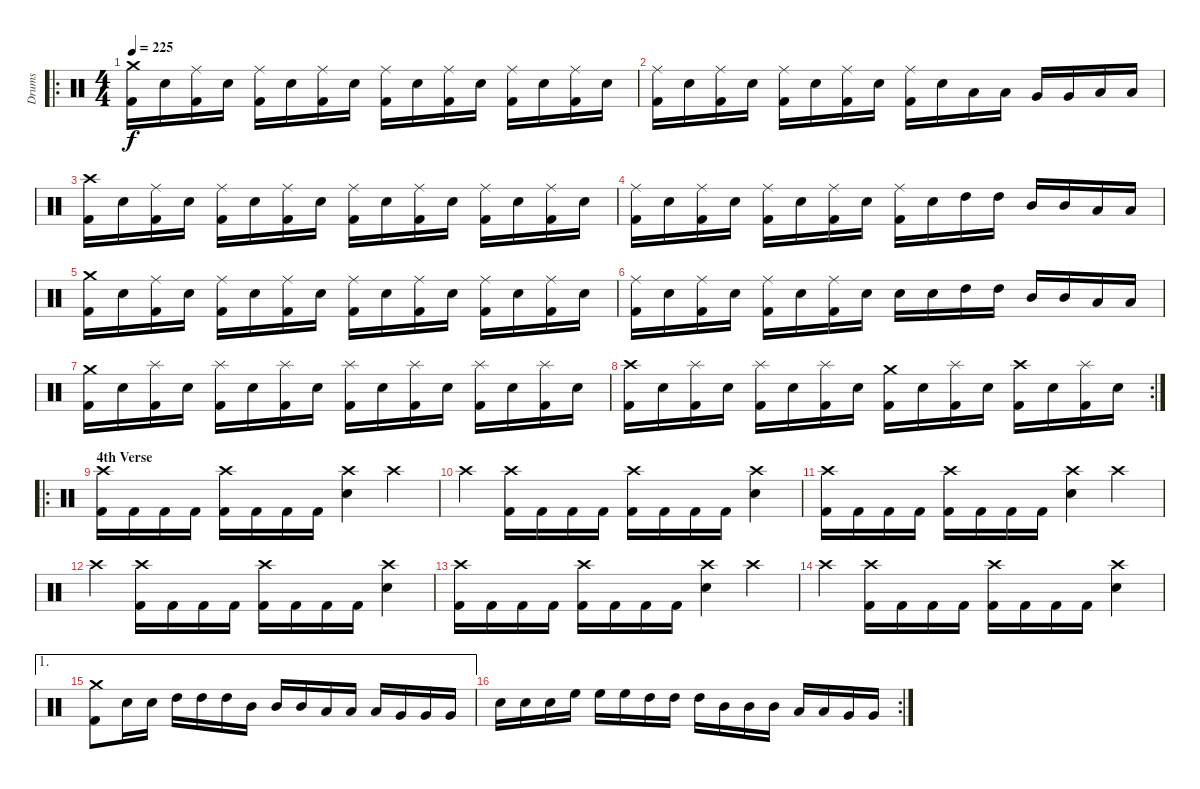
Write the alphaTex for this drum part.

\track ("Drums" "Drums") {instrument percussion}
\staff {score}
\articulation defaults
\ro
\ts (4 4)
\tempo 225
\clef neutral
\ks c
("Kick (hit) 2" "Crash medium (hit)").16{dy f} "Electric Snare (hit)".16 ("Kick (hit) 2" "Ride (middle)").16 "Electric Snare (hit)".16 ("Kick (hit) 2" "Ride (middle)").16 "Electric Snare (hit)".16 ("Kick (hit) 2" "Ride (middle)").16 "Electric Snare (hit)".16 ("Kick (hit) 2" "Ride (middle)").16 "Electric Snare (hit)".16 ("Kick (hit) 2" "Ride (middle)").16 "Electric Snare (hit)".16 ("Kick (hit) 2" "Ride (middle)").16 "Electric Snare (hit)".16 ("Kick (hit) 2" "Ride (middle)").16 "Electric Snare (hit)".16 |
("Kick (hit) 2" "Ride (middle)").16 "Electric Snare (hit)".16 ("Kick (hit) 2" "Ride (middle)").16 "Electric Snare (hit)".16 ("Kick (hit) 2" "Ride (middle)").16 "Electric Snare (hit)".16 ("Kick (hit) 2" "Ride (middle)").16 "Electric Snare (hit)".16 ("Kick (hit) 2" "Ride (middle)").16 "Electric Snare (hit)".16 "Low Tom (hit)".16 "Low Tom (hit)".16 "Very Low Tom (hit)".16 "Very Low Tom (hit)".16 "Low Floor Tom (hit)".16 "Low Floor Tom (hit)".16 |
("Kick (hit) 2" "Crash high (hit)").16 "Electric Snare (hit)".16 ("Kick (hit) 2" "Ride (middle)").16 "Electric Snare (hit)".16 ("Kick (hit) 2" "Ride (middle)").16 "Electric Snare (hit)".16 ("Kick (hit) 2" "Ride (middle)").16 "Electric Snare (hit)".16 ("Kick (hit) 2" "Ride (middle)").16 "Electric Snare (hit)".16 ("Kick (hit) 2" "Ride (middle)").16 "Electric Snare (hit)".16 ("Kick (hit) 2" "Ride (middle)").16 "Electric Snare (hit)".16 ("Kick (hit) 2" "Ride (middle)").16 "Electric Snare (hit)".16 |
("Kick (hit) 2" "Ride (middle)").16 "Electric Snare (hit)".16 ("Kick (hit) 2" "Ride (middle)").16 "Electric Snare (hit)".16 ("Kick (hit) 2" "Ride (middle)").16 "Electric Snare (hit)".16 ("Kick (hit) 2" "Ride (middle)").16 "Electric Snare (hit)".16 ("Kick (hit) 2" "Ride (middle)").16 "Electric Snare (hit)".16 "High Tom (hit)".16 "High Tom (hit)".16 "Mid Tom (hit)".16 "Mid Tom (hit)".16 "Low Tom (hit)".16 "Low Tom (hit)".16 |
("Kick (hit) 2" "Crash medium (hit)").16 "Electric Snare (hit)".16 ("Kick (hit) 2" "Ride (middle)").16 "Electric Snare (hit)".16 ("Kick (hit) 2" "Ride (middle)").16 "Electric Snare (hit)".16 ("Kick (hit) 2" "Ride (middle)").16 "Electric Snare (hit)".16 ("Kick (hit) 2" "Ride (middle)").16 "Electric Snare (hit)".16 ("Kick (hit) 2" "Ride (middle)").16 "Electric Snare (hit)".16 ("Kick (hit) 2" "Ride (middle)").16 "Electric Snare (hit)".16 ("Kick (hit) 2" "Ride (middle)").16 "Electric Snare (hit)".16 |
("Kick (hit) 2" "Ride (middle)").16 "Electric Snare (hit)".16 ("Kick (hit) 2" "Ride (middle)").16 "Electric Snare (hit)".16 ("Kick (hit) 2" "Ride (middle)").16 "Electric Snare (hit)".16 ("Kick (hit) 2" "Ride (middle)").16 "Electric Snare (hit)".16 "Electric Snare (hit)".16 "Electric Snare (hit)".16 "High Tom (hit)".16 "High Tom (hit)".16 "Mid Tom (hit)".16 "Mid Tom (hit)".16 "Low Tom (hit)".16 "Low Tom (hit)".16 |
("Kick (hit) 2" "Crash medium (hit)").16 "Electric Snare (hit)".16 ("Kick (hit) 2" "Splash (hit)").16 "Electric Snare (hit)".16 ("Kick (hit) 2" "Splash (hit)").16 "Electric Snare (hit)".16 ("Kick (hit) 2" "Splash (hit)").16 "Electric Snare (hit)".16 ("Kick (hit) 2" "Splash (hit)").16 "Electric Snare (hit)".16 ("Kick (hit) 2" "Splash (hit)").16 "Electric Snare (hit)".16 ("Kick (hit) 2" "Splash (hit)").16 "Electric Snare (hit)".16 ("Kick (hit) 2" "Splash (hit)").16 "Electric Snare (hit)".16 |
\rc 2
("Kick (hit) 2" "Crash high (hit)").16 "Electric Snare (hit)".16 ("Kick (hit) 2" "Splash (hit)").16 "Electric Snare (hit)".16 ("Kick (hit) 2" "Splash (hit)").16 "Electric Snare (hit)".16 ("Kick (hit) 2" "Splash (hit)").16 "Electric Snare (hit)".16 ("Kick (hit) 2" "Crash medium (hit)").16 "Electric Snare (hit)".16 ("Kick (hit) 2" "Splash (hit)").16 "Electric Snare (hit)".16 ("Kick (hit) 2" "Crash high (hit)").16 "Electric Snare (hit)".16 ("Kick (hit) 2" "Splash (hit)").16 "Electric Snare (hit)".16 |
\ro
\section ("" "4th Verse")
("Kick (hit) 2" "Crash high (hit)").16 "Kick (hit) 2".16 "Kick (hit) 2".16 "Kick (hit) 2".16 ("Kick (hit) 2" "Crash high (hit)").16 "Kick (hit) 2".16 "Kick (hit) 2".16 "Kick (hit) 2".16 ("Electric Snare (hit)" "Crash high (hit)").4 "Crash high (hit)".4 |
"Crash high (hit)".4 ("Kick (hit) 2" "Crash high (hit)").16 "Kick (hit) 2".16 "Kick (hit) 2".16 "Kick (hit) 2".16 ("Kick (hit) 2" "Crash high (hit)").16 "Kick (hit) 2".16 "Kick (hit) 2".16 "Kick (hit) 2".16 ("Electric Snare (hit)" "Crash high (hit)").4 |
("Kick (hit) 2" "Crash high (hit)").16 "Kick (hit) 2".16 "Kick (hit) 2".16 "Kick (hit) 2".16 ("Kick (hit) 2" "Crash high (hit)").16 "Kick (hit) 2".16 "Kick (hit) 2".16 "Kick (hit) 2".16 ("Electric Snare (hit)" "Crash high (hit)").4 "Crash high (hit)".4 |
"Crash high (hit)".4 ("Kick (hit) 2" "Crash high (hit)").16 "Kick (hit) 2".16 "Kick (hit) 2".16 "Kick (hit) 2".16 ("Kick (hit) 2" "Crash high (hit)").16 "Kick (hit) 2".16 "Kick (hit) 2".16 "Kick (hit) 2".16 ("Electric Snare (hit)" "Crash high (hit)").4 |
("Kick (hit) 2" "Crash high (hit)").16 "Kick (hit) 2".16 "Kick (hit) 2".16 "Kick (hit) 2".16 ("Kick (hit) 2" "Crash high (hit)").16 "Kick (hit) 2".16 "Kick (hit) 2".16 "Kick (hit) 2".16 ("Electric Snare (hit)" "Crash high (hit)").4 "Crash high (hit)".4 |
"Crash high (hit)".4 ("Kick (hit) 2" "Crash high (hit)").16 "Kick (hit) 2".16 "Kick (hit) 2".16 "Kick (hit) 2".16 ("Kick (hit) 2" "Crash high (hit)").16 "Kick (hit) 2".16 "Kick (hit) 2".16 "Kick (hit) 2".16 ("Electric Snare (hit)" "Crash high (hit)").4 |
\ae 1
("Kick (hit) 2" "Crash medium (hit)").8 "Electric Snare (hit)".16 "Electric Snare (hit)".16 "High Tom (hit)".16 "High Tom (hit)".16 "High Tom (hit)".16 "Mid Tom (hit)".16 "Mid Tom (hit)".16 "Mid Tom (hit)".16 "Low Tom (hit)".16 "Low Tom (hit)".16 "Low Tom (hit)".16 "Very Low Tom (hit)".16 "Very Low Tom (hit)".16 "Very Low Tom (hit)".16 |
\rc 2 "Electric Snare (hit)".16 "Electric Snare (hit)".16 "Electric Snare (hit)".16 "High Floor Tom (hit)".16 "High Floor Tom (hit)".16 "High Floor Tom (hit)".16 "High Tom (hit)".16 "High Tom (hit)".16 "High Tom (hit)".16 "Mid Tom (hit)".16 "Mid Tom (hit)".16 "Mid Tom (hit)".16 "Low Tom (hit)".16 "Low Tom (hit)".16 "Very Low Tom (hit)".16 "Very Low Tom (hit)".16
